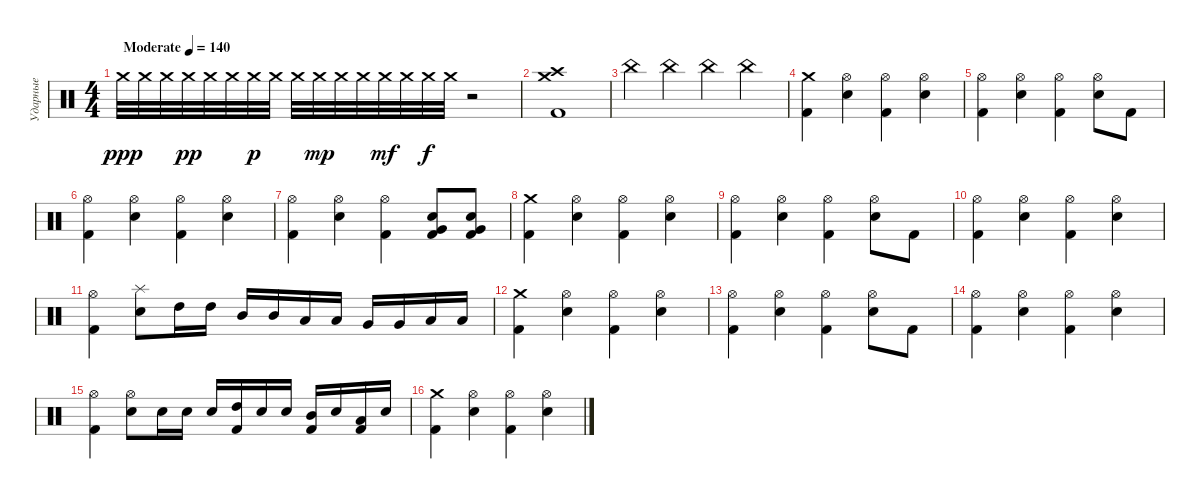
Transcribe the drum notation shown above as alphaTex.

\track ("Ударные" "Ударные") {instrument percussion}
\staff {score}
\articulation defaults
\ts (4 4)
\tempo (140 "Moderate")
\clef neutral
\ks c "Crash medium (hit)".32{dy ppp} "Crash medium (hit)".32 "Crash medium (hit)".32 "Crash medium (hit)".32{dy pp} "Crash medium (hit)".32 "Crash medium (hit)".32 "Crash medium (hit)".32{dy p} "Crash medium (hit)".32 "Crash medium (hit)".32 "Crash medium (hit)".32{dy mp} "Crash medium (hit)".32 "Crash medium (hit)".32 "Crash medium (hit)".32{dy mf} "Crash medium (hit)".32 "Crash medium (hit)".32{dy f} "Crash medium (hit)".32
r.2 |
("Crash medium (hit)" "Crash high (hit)" "Kick (hit) 2").1 |
"China (hit)".4 "China (hit)".4 "China (hit)".4 "China (hit)".4 |
("Crash medium (hit)" "Kick (hit) 2").4 ("Hi-Hat (open)" "Electric Snare (hit)").4 ("Hi-Hat (open)" "Kick (hit) 2").4 ("Hi-Hat (open)" "Electric Snare (hit)").4 |
("Hi-Hat (open)" "Kick (hit) 2").4 ("Hi-Hat (open)" "Electric Snare (hit)").4 ("Hi-Hat (open)" "Kick (hit) 2").4 ("Hi-Hat (open)" "Electric Snare (hit)").8 "Kick (hit) 2".8 |
("Hi-Hat (open)" "Kick (hit) 2").4 ("Hi-Hat (open)" "Electric Snare (hit)").4 ("Hi-Hat (open)" "Kick (hit) 2").4 ("Hi-Hat (open)" "Electric Snare (hit)").4 |
("Hi-Hat (open)" "Kick (hit) 2").4 ("Hi-Hat (open)" "Electric Snare (hit)").4 ("Hi-Hat (open)" "Kick (hit) 2").4 ("Very Low Tom (hit)" "Electric Snare (hit)" "Kick (hit) 2").8 ("Very Low Tom (hit)" "Electric Snare (hit)" "Kick (hit) 2").8 |
("Crash medium (hit)" "Kick (hit) 2").4 ("Hi-Hat (open)" "Electric Snare (hit)").4 ("Hi-Hat (open)" "Kick (hit) 2").4 ("Hi-Hat (open)" "Electric Snare (hit)").4 |
("Hi-Hat (open)" "Kick (hit) 2").4 ("Hi-Hat (open)" "Electric Snare (hit)").4 ("Hi-Hat (open)" "Kick (hit) 2").4 ("Hi-Hat (open)" "Electric Snare (hit)").8 "Kick (hit) 2".8 |
("Hi-Hat (open)" "Kick (hit) 2").4 ("Hi-Hat (open)" "Electric Snare (hit)").4 ("Hi-Hat (open)" "Kick (hit) 2").4 ("Hi-Hat (open)" "Electric Snare (hit)").4 |
("Hi-Hat (open)" "Kick (hit) 2").4 ("Splash (hit)" "Electric Snare (hit)").8 "High Tom (hit)".16 "High Tom (hit)".16 "Mid Tom (hit)".16 "Mid Tom (hit)".16 "Low Tom (hit)".16 "Low Tom (hit)".16 "Very Low Tom (hit)".16 "Very Low Tom (hit)".16 "Low Floor Tom (hit)".16 "Low Floor Tom (hit)".16 |
("Crash medium (hit)" "Kick (hit) 2").4 ("Hi-Hat (open)" "Electric Snare (hit)").4 ("Hi-Hat (open)" "Kick (hit) 2").4 ("Hi-Hat (open)" "Electric Snare (hit)").4 |
("Hi-Hat (open)" "Kick (hit) 2").4 ("Hi-Hat (open)" "Electric Snare (hit)").4 ("Hi-Hat (open)" "Kick (hit) 2").4 ("Hi-Hat (open)" "Electric Snare (hit)").8 "Kick (hit) 2".8 |
("Hi-Hat (open)" "Kick (hit) 2").4 ("Hi-Hat (open)" "Electric Snare (hit)").4 ("Hi-Hat (open)" "Kick (hit) 2").4 ("Hi-Hat (open)" "Electric Snare (hit)").4 |
("Hi-Hat (open)" "Kick (hit) 2").4 ("Hi-Hat (open)" "Electric Snare (hit)").8 "Electric Snare (hit)".16 "Electric Snare (hit)".16 "Electric Snare (hit)".16 ("High Tom (hit)" "Kick (hit) 2").16 "Electric Snare (hit)".16 "Electric Snare (hit)".16 ("Mid Tom (hit)" "Kick (hit) 2").16 "Electric Snare (hit)".16 ("Low Tom (hit)" "Kick (hit) 2").16 "Electric Snare (hit)".16 |
("Crash medium (hit)" "Kick (hit) 2").4 ("Hi-Hat (open)" "Electric Snare (hit)").4 ("Hi-Hat (open)" "Kick (hit) 2").4 ("Hi-Hat (open)" "Electric Snare (hit)").4
